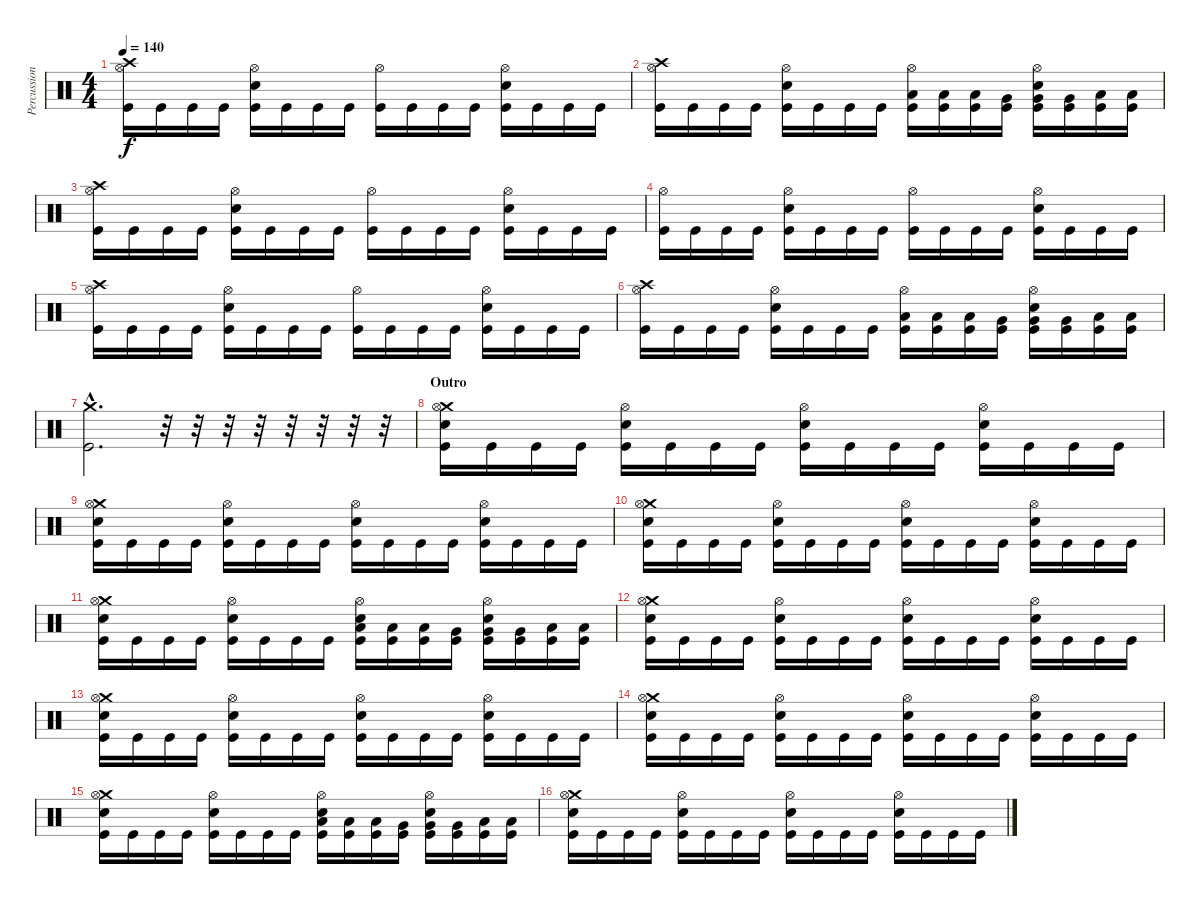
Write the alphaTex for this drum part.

\track ("Percussion" "Percussion") {instrument percussion}
\staff {score}
\articulation defaults
\ts (4 4)
\tempo 140
\clef neutral
\ks c
("Crash high (hit)" "Hi-Hat (open)" "Kick (hit)").16{dy f} "Kick (hit)".16 "Kick (hit)".16 "Kick (hit)".16 ("Hi-Hat (open)" "Electric Snare (hit)" "Kick (hit)").16 "Kick (hit)".16 "Kick (hit)".16 "Kick (hit)".16 ("Hi-Hat (open)" "Kick (hit)").16 "Kick (hit)".16 "Kick (hit)".16 "Kick (hit)".16 ("Hi-Hat (open)" "Electric Snare (hit)" "Kick (hit)").16 "Kick (hit)".16 "Kick (hit)".16 "Kick (hit)".16 |
("Crash high (hit)" "Hi-Hat (open)" "Kick (hit)").16 "Kick (hit)".16 "Kick (hit)".16 "Kick (hit)".16 ("Hi-Hat (open)" "Electric Snare (hit)" "Kick (hit)").16 "Kick (hit)".16 "Kick (hit)".16 "Kick (hit)".16 ("Low Tom (hit)" "Hi-Hat (open)" "Kick (hit)").16 ("Low Tom (hit)" "Kick (hit)").16 ("Low Tom (hit)" "Kick (hit)").16 ("Very Low Tom (hit)" "Kick (hit)").16 ("Very Low Tom (hit)" "Hi-Hat (open)" "Electric Snare (hit)" "Kick (hit)").16 ("Very Low Tom (hit)" "Kick (hit)").16 ("Low Floor Tom (hit)" "Kick (hit)").16 ("Low Floor Tom (hit)" "Kick (hit)").16 |
("Crash high (hit)" "Hi-Hat (open)" "Kick (hit)").16 "Kick (hit)".16 "Kick (hit)".16 "Kick (hit)".16 ("Hi-Hat (open)" "Electric Snare (hit)" "Kick (hit)").16 "Kick (hit)".16 "Kick (hit)".16 "Kick (hit)".16 ("Hi-Hat (open)" "Kick (hit)").16 "Kick (hit)".16 "Kick (hit)".16 "Kick (hit)".16 ("Hi-Hat (open)" "Electric Snare (hit)" "Kick (hit)").16 "Kick (hit)".16 "Kick (hit)".16 "Kick (hit)".16 |
("Hi-Hat (open)" "Kick (hit)").16 "Kick (hit)".16 "Kick (hit)".16 "Kick (hit)".16 ("Hi-Hat (open)" "Electric Snare (hit)" "Kick (hit)").16 "Kick (hit)".16 "Kick (hit)".16 "Kick (hit)".16 ("Hi-Hat (open)" "Kick (hit)").16 "Kick (hit)".16 "Kick (hit)".16 "Kick (hit)".16 ("Hi-Hat (open)" "Electric Snare (hit)" "Kick (hit)").16 "Kick (hit)".16 "Kick (hit)".16 "Kick (hit)".16 |
("Crash high (hit)" "Hi-Hat (open)" "Kick (hit)").16 "Kick (hit)".16 "Kick (hit)".16 "Kick (hit)".16 ("Hi-Hat (open)" "Electric Snare (hit)" "Kick (hit)").16 "Kick (hit)".16 "Kick (hit)".16 "Kick (hit)".16 ("Hi-Hat (open)" "Kick (hit)").16 "Kick (hit)".16 "Kick (hit)".16 "Kick (hit)".16 ("Hi-Hat (open)" "Electric Snare (hit)" "Kick (hit)").16 "Kick (hit)".16 "Kick (hit)".16 "Kick (hit)".16 |
("Crash high (hit)" "Hi-Hat (open)" "Kick (hit)").16 "Kick (hit)".16 "Kick (hit)".16 "Kick (hit)".16 ("Hi-Hat (open)" "Electric Snare (hit)" "Kick (hit)").16 "Kick (hit)".16 "Kick (hit)".16 "Kick (hit)".16 ("Low Tom (hit)" "Hi-Hat (open)" "Kick (hit)").16 ("Low Tom (hit)" "Kick (hit)").16 ("Low Tom (hit)" "Kick (hit)").16 ("Very Low Tom (hit)" "Kick (hit)").16 ("Very Low Tom (hit)" "Hi-Hat (open)" "Electric Snare (hit)" "Kick (hit)").16 ("Very Low Tom (hit)" "Kick (hit)").16 ("Low Floor Tom (hit)" "Kick (hit)").16 ("Low Floor Tom (hit)" "Kick (hit)").16 |
("Crash medium (hit)"{hac} "Kick (hit)"{hac}).2{d} r.32 r.32 r.32 r.32 r.32 r.32 r.32 r.32 |
\section ("" "Outro")
("Crash medium (hit)" "Hi-Hat (open)" "Electric Snare (hit)" "Kick (hit)").16 "Kick (hit)".16 "Kick (hit)".16 "Kick (hit)".16 ("Hi-Hat (open)" "Electric Snare (hit)" "Kick (hit)").16 "Kick (hit)".16 "Kick (hit)".16 "Kick (hit)".16 ("Hi-Hat (open)" "Electric Snare (hit)" "Kick (hit)").16 "Kick (hit)".16 "Kick (hit)".16 "Kick (hit)".16 ("Hi-Hat (open)" "Electric Snare (hit)" "Kick (hit)").16 "Kick (hit)".16 "Kick (hit)".16 "Kick (hit)".16 |
("Crash medium (hit)" "Hi-Hat (open)" "Electric Snare (hit)" "Kick (hit)").16 "Kick (hit)".16 "Kick (hit)".16 "Kick (hit)".16 ("Hi-Hat (open)" "Electric Snare (hit)" "Kick (hit)").16 "Kick (hit)".16 "Kick (hit)".16 "Kick (hit)".16 ("Hi-Hat (open)" "Electric Snare (hit)" "Kick (hit)").16 "Kick (hit)".16 "Kick (hit)".16 "Kick (hit)".16 ("Hi-Hat (open)" "Electric Snare (hit)" "Kick (hit)").16 "Kick (hit)".16 "Kick (hit)".16 "Kick (hit)".16 |
("Crash medium (hit)" "Hi-Hat (open)" "Electric Snare (hit)" "Kick (hit)").16 "Kick (hit)".16 "Kick (hit)".16 "Kick (hit)".16 ("Hi-Hat (open)" "Electric Snare (hit)" "Kick (hit)").16 "Kick (hit)".16 "Kick (hit)".16 "Kick (hit)".16 ("Hi-Hat (open)" "Electric Snare (hit)" "Kick (hit)").16 "Kick (hit)".16 "Kick (hit)".16 "Kick (hit)".16 ("Hi-Hat (open)" "Electric Snare (hit)" "Kick (hit)").16 "Kick (hit)".16 "Kick (hit)".16 "Kick (hit)".16 |
("Crash medium (hit)" "Hi-Hat (open)" "Electric Snare (hit)" "Kick (hit)").16 "Kick (hit)".16 "Kick (hit)".16 "Kick (hit)".16 ("Hi-Hat (open)" "Electric Snare (hit)" "Kick (hit)").16 "Kick (hit)".16 "Kick (hit)".16 "Kick (hit)".16 ("Low Tom (hit)" "Hi-Hat (open)" "Electric Snare (hit)" "Kick (hit)").16 ("Low Tom (hit)" "Kick (hit)").16 ("Low Tom (hit)" "Kick (hit)").16 ("Very Low Tom (hit)" "Kick (hit)").16 ("Very Low Tom (hit)" "Hi-Hat (open)" "Electric Snare (hit)" "Kick (hit)").16 ("Very Low Tom (hit)" "Kick (hit)").16 ("Low Floor Tom (hit)" "Kick (hit)").16 ("Low Floor Tom (hit)" "Kick (hit)").16 |
("Crash medium (hit)" "Hi-Hat (open)" "Electric Snare (hit)" "Kick (hit)").16 "Kick (hit)".16 "Kick (hit)".16 "Kick (hit)".16 ("Hi-Hat (open)" "Electric Snare (hit)" "Kick (hit)").16 "Kick (hit)".16 "Kick (hit)".16 "Kick (hit)".16 ("Hi-Hat (open)" "Electric Snare (hit)" "Kick (hit)").16 "Kick (hit)".16 "Kick (hit)".16 "Kick (hit)".16 ("Hi-Hat (open)" "Electric Snare (hit)" "Kick (hit)").16 "Kick (hit)".16 "Kick (hit)".16 "Kick (hit)".16 |
("Crash medium (hit)" "Hi-Hat (open)" "Electric Snare (hit)" "Kick (hit)").16 "Kick (hit)".16 "Kick (hit)".16 "Kick (hit)".16 ("Hi-Hat (open)" "Electric Snare (hit)" "Kick (hit)").16 "Kick (hit)".16 "Kick (hit)".16 "Kick (hit)".16 ("Hi-Hat (open)" "Electric Snare (hit)" "Kick (hit)").16 "Kick (hit)".16 "Kick (hit)".16 "Kick (hit)".16 ("Hi-Hat (open)" "Electric Snare (hit)" "Kick (hit)").16 "Kick (hit)".16 "Kick (hit)".16 "Kick (hit)".16 |
("Crash medium (hit)" "Hi-Hat (open)" "Electric Snare (hit)" "Kick (hit)").16 "Kick (hit)".16 "Kick (hit)".16 "Kick (hit)".16 ("Hi-Hat (open)" "Electric Snare (hit)" "Kick (hit)").16 "Kick (hit)".16 "Kick (hit)".16 "Kick (hit)".16 ("Hi-Hat (open)" "Electric Snare (hit)" "Kick (hit)").16 "Kick (hit)".16 "Kick (hit)".16 "Kick (hit)".16 ("Hi-Hat (open)" "Electric Snare (hit)" "Kick (hit)").16 "Kick (hit)".16 "Kick (hit)".16 "Kick (hit)".16 |
("Crash medium (hit)" "Hi-Hat (open)" "Electric Snare (hit)" "Kick (hit)").16 "Kick (hit)".16 "Kick (hit)".16 "Kick (hit)".16 ("Hi-Hat (open)" "Electric Snare (hit)" "Kick (hit)").16 "Kick (hit)".16 "Kick (hit)".16 "Kick (hit)".16 ("Low Tom (hit)" "Hi-Hat (open)" "Electric Snare (hit)" "Kick (hit)").16 ("Low Tom (hit)" "Kick (hit)").16 ("Low Tom (hit)" "Kick (hit)").16 ("Very Low Tom (hit)" "Kick (hit)").16 ("Very Low Tom (hit)" "Hi-Hat (open)" "Electric Snare (hit)" "Kick (hit)").16 ("Very Low Tom (hit)" "Kick (hit)").16 ("Low Floor Tom (hit)" "Kick (hit)").16 ("Low Floor Tom (hit)" "Kick (hit)").16 |
("Crash medium (hit)" "Hi-Hat (open)" "Electric Snare (hit)" "Kick (hit)").16 "Kick (hit)".16 "Kick (hit)".16 "Kick (hit)".16 ("Hi-Hat (open)" "Electric Snare (hit)" "Kick (hit)").16 "Kick (hit)".16 "Kick (hit)".16 "Kick (hit)".16 ("Hi-Hat (open)" "Electric Snare (hit)" "Kick (hit)").16 "Kick (hit)".16 "Kick (hit)".16 "Kick (hit)".16 ("Hi-Hat (open)" "Electric Snare (hit)" "Kick (hit)").16 "Kick (hit)".16 "Kick (hit)".16 "Kick (hit)".16
